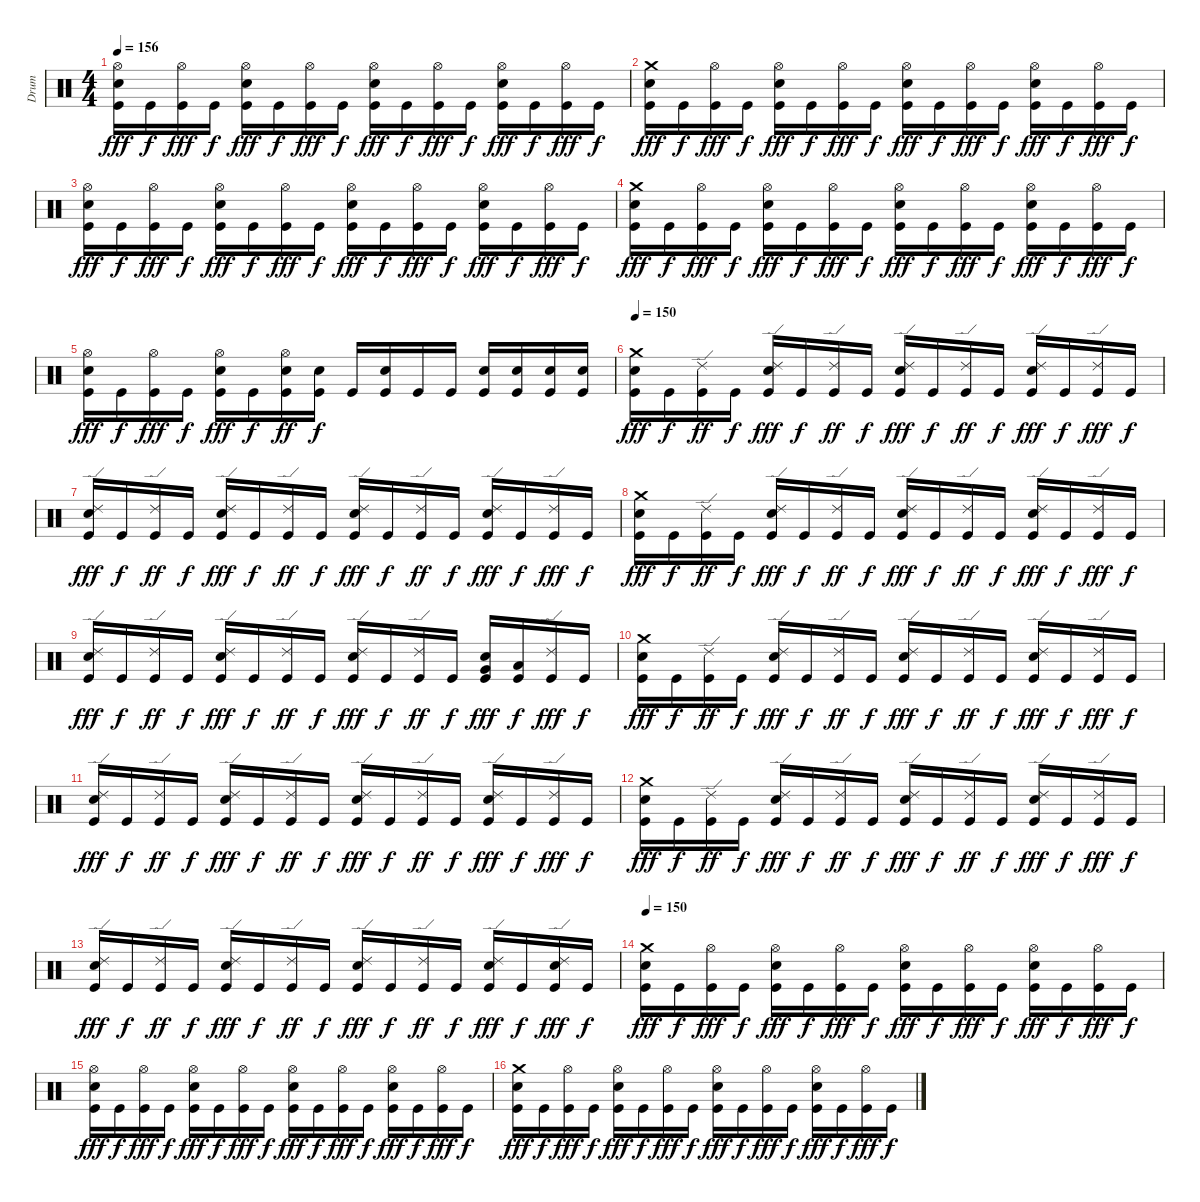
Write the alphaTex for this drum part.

\track ("Drum" "Drum") {instrument percussion}
\staff {score}
\articulation defaults
\ts (4 4)
\tempo 156
\clef neutral
\ks c
("Hi-Hat (open)" "Snare (hit) 2" "Kick (hit)").16{dy fff} "Kick (hit)".16{dy f} ("Hi-Hat (open)" "Kick (hit)").16{dy fff} "Kick (hit)".16{dy f} ("Hi-Hat (open)" "Snare (hit) 2" "Kick (hit)").16{dy fff} "Kick (hit)".16{dy f} ("Hi-Hat (open)" "Kick (hit)").16{dy fff} "Kick (hit)".16{dy f} ("Hi-Hat (open)" "Snare (hit) 2" "Kick (hit)").16{dy fff} "Kick (hit)".16{dy f} ("Hi-Hat (open)" "Kick (hit)").16{dy fff} "Kick (hit)".16{dy f} ("Hi-Hat (open)" "Snare (hit) 2" "Kick (hit)").16{dy fff} "Kick (hit)".16{dy f} ("Hi-Hat (open)" "Kick (hit)").16{dy fff} "Kick (hit)".16{dy f} |
("Crash medium (hit)" "Snare (hit) 2" "Kick (hit)").16{dy fff} "Kick (hit)".16{dy f} ("Hi-Hat (open)" "Kick (hit)").16{dy fff} "Kick (hit)".16{dy f} ("Hi-Hat (open)" "Snare (hit) 2" "Kick (hit)").16{dy fff} "Kick (hit)".16{dy f} ("Hi-Hat (open)" "Kick (hit)").16{dy fff} "Kick (hit)".16{dy f} ("Hi-Hat (open)" "Snare (hit) 2" "Kick (hit)").16{dy fff} "Kick (hit)".16{dy f} ("Hi-Hat (open)" "Kick (hit)").16{dy fff} "Kick (hit)".16{dy f} ("Hi-Hat (open)" "Snare (hit) 2" "Kick (hit)").16{dy fff} "Kick (hit)".16{dy f} ("Hi-Hat (open)" "Kick (hit)").16{dy fff} "Kick (hit)".16{dy f} |
("Hi-Hat (open)" "Snare (hit) 2" "Kick (hit)").16{dy fff} "Kick (hit)".16{dy f} ("Hi-Hat (open)" "Kick (hit)").16{dy fff} "Kick (hit)".16{dy f} ("Hi-Hat (open)" "Snare (hit) 2" "Kick (hit)").16{dy fff} "Kick (hit)".16{dy f} ("Hi-Hat (open)" "Kick (hit)").16{dy fff} "Kick (hit)".16{dy f} ("Hi-Hat (open)" "Snare (hit) 2" "Kick (hit)").16{dy fff} "Kick (hit)".16{dy f} ("Hi-Hat (open)" "Kick (hit)").16{dy fff} "Kick (hit)".16{dy f} ("Hi-Hat (open)" "Snare (hit) 2" "Kick (hit)").16{dy fff} "Kick (hit)".16{dy f} ("Hi-Hat (open)" "Kick (hit)").16{dy fff} "Kick (hit)".16{dy f} |
("Crash medium (hit)" "Snare (hit) 2" "Kick (hit)").16{dy fff} "Kick (hit)".16{dy f} ("Hi-Hat (open)" "Kick (hit)").16{dy fff} "Kick (hit)".16{dy f} ("Hi-Hat (open)" "Snare (hit) 2" "Kick (hit)").16{dy fff} "Kick (hit)".16{dy f} ("Hi-Hat (open)" "Kick (hit)").16{dy fff} "Kick (hit)".16{dy f} ("Hi-Hat (open)" "Snare (hit) 2" "Kick (hit)").16{dy fff} "Kick (hit)".16{dy f} ("Hi-Hat (open)" "Kick (hit)").16{dy fff} "Kick (hit)".16{dy f} ("Hi-Hat (open)" "Snare (hit) 2" "Kick (hit)").16{dy fff} "Kick (hit)".16{dy f} ("Hi-Hat (open)" "Kick (hit)").16{dy fff} "Kick (hit)".16{dy f} |
("Hi-Hat (open)" "Snare (hit) 2" "Kick (hit)").16{dy fff} "Kick (hit)".16{dy f} ("Hi-Hat (open)" "Kick (hit)").16{dy fff} "Kick (hit)".16{dy f} ("Hi-Hat (open)" "Snare (hit) 2" "Kick (hit)").16{dy fff} "Kick (hit)".16{dy f} ("Hi-Hat (open)" "Snare (hit) 2" "Kick (hit)").16{dy ff} ("Snare (hit) 2" "Kick (hit)").16{dy f} "Kick (hit)".16 ("Snare (hit) 2" "Kick (hit)").16 "Kick (hit)".16 "Kick (hit)".16 ("Snare (hit) 2" "Kick (hit)").16 ("Snare (hit) 2" "Kick (hit)").16 ("Snare (hit) 2" "Kick (hit)").16 ("Snare (hit) 2" "Kick (hit)").16 |
\tempo 150
("Crash medium (hit)" "Snare (hit) 2" "Kick (hit)").16{dy fff} "Kick (hit)".16{dy f} ("Ride (edge) 2" "Kick (hit)").16{dy ff} "Kick (hit)".16{dy f} ("Ride (edge) 2" "Snare (hit) 2" "Kick (hit)").16{dy fff} "Kick (hit)".16{dy f} ("Ride (edge) 2" "Kick (hit)").16{dy ff} "Kick (hit)".16{dy f} ("Ride (edge) 2" "Snare (hit) 2" "Kick (hit)").16{dy fff} "Kick (hit)".16{dy f} ("Ride (edge) 2" "Kick (hit)").16{dy ff} "Kick (hit)".16{dy f} ("Ride (edge) 2" "Snare (hit) 2" "Kick (hit)").16{dy fff} "Kick (hit)".16{dy f} ("Ride (edge) 2" "Kick (hit)").16{dy fff} "Kick (hit)".16{dy f} |
("Ride (edge) 2" "Snare (hit) 2" "Kick (hit)").16{dy fff} "Kick (hit)".16{dy f} ("Ride (edge) 2" "Kick (hit)").16{dy ff} "Kick (hit)".16{dy f} ("Ride (edge) 2" "Snare (hit) 2" "Kick (hit)").16{dy fff} "Kick (hit)".16{dy f} ("Ride (edge) 2" "Kick (hit)").16{dy ff} "Kick (hit)".16{dy f} ("Ride (edge) 2" "Snare (hit) 2" "Kick (hit)").16{dy fff} "Kick (hit)".16{dy f} ("Ride (edge) 2" "Kick (hit)").16{dy ff} "Kick (hit)".16{dy f} ("Ride (edge) 2" "Snare (hit) 2" "Kick (hit)").16{dy fff} "Kick (hit)".16{dy f} ("Ride (edge) 2" "Kick (hit)").16{dy fff} "Kick (hit)".16{dy f} |
("Crash medium (hit)" "Snare (hit) 2" "Kick (hit)").16{dy fff} "Kick (hit)".16{dy f} ("Ride (edge) 2" "Kick (hit)").16{dy ff} "Kick (hit)".16{dy f} ("Ride (edge) 2" "Snare (hit) 2" "Kick (hit)").16{dy fff} "Kick (hit)".16{dy f} ("Ride (edge) 2" "Kick (hit)").16{dy ff} "Kick (hit)".16{dy f} ("Ride (edge) 2" "Snare (hit) 2" "Kick (hit)").16{dy fff} "Kick (hit)".16{dy f} ("Ride (edge) 2" "Kick (hit)").16{dy ff} "Kick (hit)".16{dy f} ("Ride (edge) 2" "Snare (hit) 2" "Kick (hit)").16{dy fff} "Kick (hit)".16{dy f} ("Ride (edge) 2" "Kick (hit)").16{dy fff} "Kick (hit)".16{dy f} |
("Ride (edge) 2" "Snare (hit) 2" "Kick (hit)").16{dy fff} "Kick (hit)".16{dy f} ("Ride (edge) 2" "Kick (hit)").16{dy ff} "Kick (hit)".16{dy f} ("Ride (edge) 2" "Snare (hit) 2" "Kick (hit)").16{dy fff} "Kick (hit)".16{dy f} ("Ride (edge) 2" "Kick (hit)").16{dy ff} "Kick (hit)".16{dy f} ("Ride (edge) 2" "Snare (hit) 2" "Kick (hit)").16{dy fff} "Kick (hit)".16{dy f} ("Ride (edge) 2" "Kick (hit)").16{dy ff} "Kick (hit)".16{dy f} ("Snare (hit) 2" "Very Low Tom (hit)" "Kick (hit)").16{dy fff} ("Low Floor Tom (hit)" "Kick (hit)").16{dy f} ("Ride (edge) 2" "Kick (hit)").16{dy fff} "Kick (hit)".16{dy f} |
("Crash medium (hit)" "Snare (hit) 2" "Kick (hit)").16{dy fff} "Kick (hit)".16{dy f} ("Ride (edge) 2" "Kick (hit)").16{dy ff} "Kick (hit)".16{dy f} ("Ride (edge) 2" "Snare (hit) 2" "Kick (hit)").16{dy fff} "Kick (hit)".16{dy f} ("Ride (edge) 2" "Kick (hit)").16{dy ff} "Kick (hit)".16{dy f} ("Ride (edge) 2" "Snare (hit) 2" "Kick (hit)").16{dy fff} "Kick (hit)".16{dy f} ("Ride (edge) 2" "Kick (hit)").16{dy ff} "Kick (hit)".16{dy f} ("Ride (edge) 2" "Snare (hit) 2" "Kick (hit)").16{dy fff} "Kick (hit)".16{dy f} ("Ride (edge) 2" "Kick (hit)").16{dy fff} "Kick (hit)".16{dy f} |
("Ride (edge) 2" "Snare (hit) 2" "Kick (hit)").16{dy fff} "Kick (hit)".16{dy f} ("Ride (edge) 2" "Kick (hit)").16{dy ff} "Kick (hit)".16{dy f} ("Ride (edge) 2" "Snare (hit) 2" "Kick (hit)").16{dy fff} "Kick (hit)".16{dy f} ("Ride (edge) 2" "Kick (hit)").16{dy ff} "Kick (hit)".16{dy f} ("Ride (edge) 2" "Snare (hit) 2" "Kick (hit)").16{dy fff} "Kick (hit)".16{dy f} ("Ride (edge) 2" "Kick (hit)").16{dy ff} "Kick (hit)".16{dy f} ("Ride (edge) 2" "Snare (hit) 2" "Kick (hit)").16{dy fff} "Kick (hit)".16{dy f} ("Ride (edge) 2" "Kick (hit)").16{dy fff} "Kick (hit)".16{dy f} |
("Crash medium (hit)" "Snare (hit) 2" "Kick (hit)").16{dy fff} "Kick (hit)".16{dy f} ("Ride (edge) 2" "Kick (hit)").16{dy ff} "Kick (hit)".16{dy f} ("Ride (edge) 2" "Snare (hit) 2" "Kick (hit)").16{dy fff} "Kick (hit)".16{dy f} ("Ride (edge) 2" "Kick (hit)").16{dy ff} "Kick (hit)".16{dy f} ("Ride (edge) 2" "Snare (hit) 2" "Kick (hit)").16{dy fff} "Kick (hit)".16{dy f} ("Ride (edge) 2" "Kick (hit)").16{dy ff} "Kick (hit)".16{dy f} ("Ride (edge) 2" "Snare (hit) 2" "Kick (hit)").16{dy fff} "Kick (hit)".16{dy f} ("Ride (edge) 2" "Kick (hit)").16{dy fff} "Kick (hit)".16{dy f} |
("Ride (edge) 2" "Snare (hit) 2" "Kick (hit)").16{dy fff} "Kick (hit)".16{dy f} ("Ride (edge) 2" "Kick (hit)").16{dy ff} "Kick (hit)".16{dy f} ("Ride (edge) 2" "Snare (hit) 2" "Kick (hit)").16{dy fff} "Kick (hit)".16{dy f} ("Ride (edge) 2" "Kick (hit)").16{dy ff} "Kick (hit)".16{dy f} ("Ride (edge) 2" "Snare (hit) 2" "Kick (hit)").16{dy fff} "Kick (hit)".16{dy f} ("Ride (edge) 2" "Kick (hit)").16{dy ff} "Kick (hit)".16{dy f} ("Ride (edge) 2" "Snare (hit) 2" "Kick (hit)").16{dy fff} "Kick (hit)".16{dy f} ("Ride (edge) 2" "Snare (hit) 2" "Kick (hit)").16{dy fff} "Kick (hit)".16{dy f} |
\tempo 150
("Crash medium (hit)" "Snare (hit) 2" "Kick (hit)").16{dy fff} "Kick (hit)".16{dy f} ("Hi-Hat (open)" "Kick (hit)").16{dy fff} "Kick (hit)".16{dy f} ("Hi-Hat (open)" "Snare (hit) 2" "Kick (hit)").16{dy fff} "Kick (hit)".16{dy f} ("Hi-Hat (open)" "Kick (hit)").16{dy fff} "Kick (hit)".16{dy f} ("Hi-Hat (open)" "Snare (hit) 2" "Kick (hit)").16{dy fff} "Kick (hit)".16{dy f} ("Hi-Hat (open)" "Kick (hit)").16{dy fff} "Kick (hit)".16{dy f} ("Hi-Hat (open)" "Snare (hit) 2" "Kick (hit)").16{dy fff} "Kick (hit)".16{dy f} ("Hi-Hat (open)" "Kick (hit)").16{dy fff} "Kick (hit)".16{dy f} |
("Hi-Hat (open)" "Snare (hit) 2" "Kick (hit)").16{dy fff} "Kick (hit)".16{dy f} ("Hi-Hat (open)" "Kick (hit)").16{dy fff} "Kick (hit)".16{dy f} ("Hi-Hat (open)" "Snare (hit) 2" "Kick (hit)").16{dy fff} "Kick (hit)".16{dy f} ("Hi-Hat (open)" "Kick (hit)").16{dy fff} "Kick (hit)".16{dy f} ("Hi-Hat (open)" "Snare (hit) 2" "Kick (hit)").16{dy fff} "Kick (hit)".16{dy f} ("Hi-Hat (open)" "Kick (hit)").16{dy fff} "Kick (hit)".16{dy f} ("Hi-Hat (open)" "Snare (hit) 2" "Kick (hit)").16{dy fff} "Kick (hit)".16{dy f} ("Hi-Hat (open)" "Kick (hit)").16{dy fff} "Kick (hit)".16{dy f} |
("Crash medium (hit)" "Snare (hit) 2" "Kick (hit)").16{dy fff} "Kick (hit)".16{dy f} ("Hi-Hat (open)" "Kick (hit)").16{dy fff} "Kick (hit)".16{dy f} ("Hi-Hat (open)" "Snare (hit) 2" "Kick (hit)").16{dy fff} "Kick (hit)".16{dy f} ("Hi-Hat (open)" "Kick (hit)").16{dy fff} "Kick (hit)".16{dy f} ("Hi-Hat (open)" "Snare (hit) 2" "Kick (hit)").16{dy fff} "Kick (hit)".16{dy f} ("Hi-Hat (open)" "Kick (hit)").16{dy fff} "Kick (hit)".16{dy f} ("Hi-Hat (open)" "Snare (hit) 2" "Kick (hit)").16{dy fff} "Kick (hit)".16{dy f} ("Hi-Hat (open)" "Kick (hit)").16{dy fff} "Kick (hit)".16{dy f}
